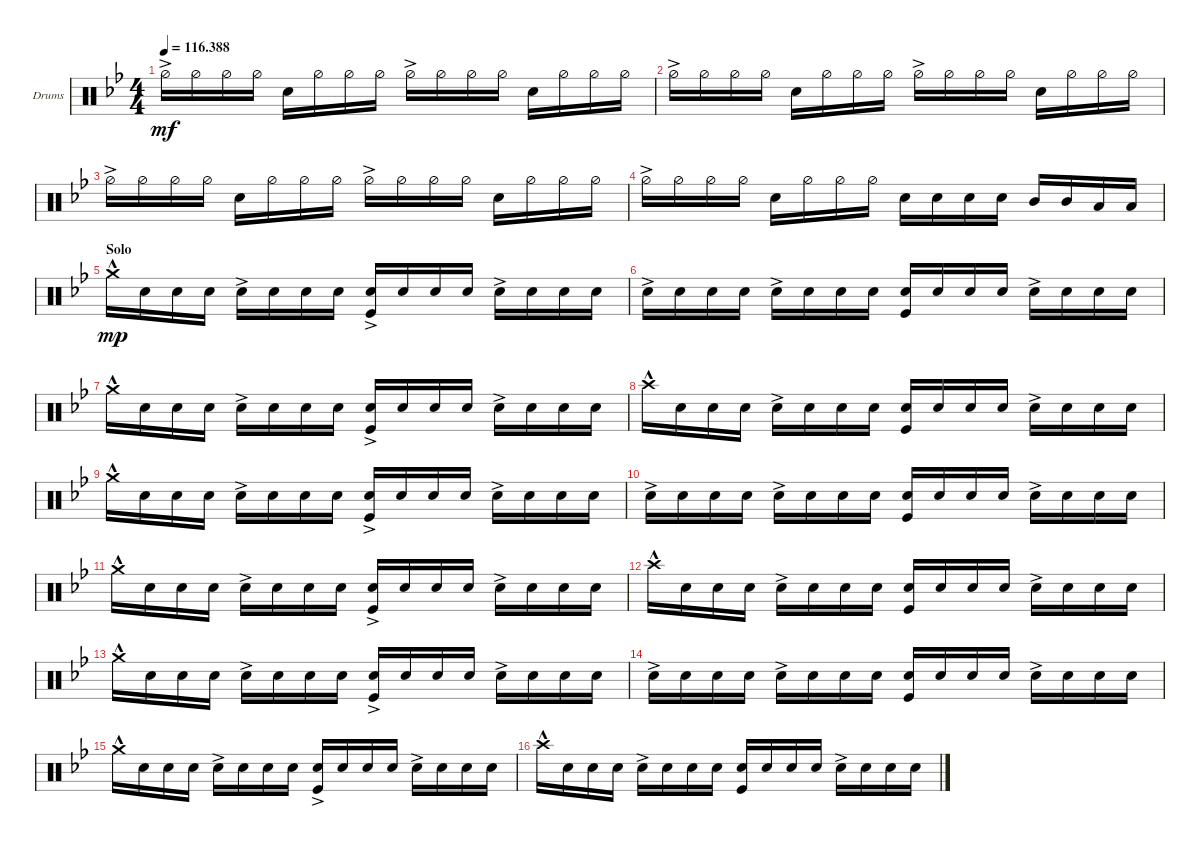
\bracketExtendMode groupsimilarinstruments
\firstSystemTrackNameOrientation horizontal
\otherSystemsTrackNameOrientation horizontal
\track ("Drumkit" "Drums") {instrument percussion}
\staff {score}
\articulation defaults
\ts (4 4)
\tempo
116.388
\accidentals auto
\clef neutral
\ottava regular
\simile none
\ks gminor "Hi-Hat (half)"{ac}.16{dy mf} "Hi-Hat (half)".16 "Hi-Hat (half)".16 "Hi-Hat (half)".16 "Snare (hit) 2".16 "Hi-Hat (half)".16 "Hi-Hat (half)".16 "Hi-Hat (half)".16 "Hi-Hat (half)"{ac}.16 "Hi-Hat (half)".16 "Hi-Hat (half)".16 "Hi-Hat (half)".16 "Snare (hit) 2".16 "Hi-Hat (half)".16 "Hi-Hat (half)".16 "Hi-Hat (half)".16
|
"Hi-Hat (half)"{ac}.16 "Hi-Hat (half)".16 "Hi-Hat (half)".16 "Hi-Hat (half)".16 "Snare (hit) 2".16 "Hi-Hat (half)".16 "Hi-Hat (half)".16 "Hi-Hat (half)".16 "Hi-Hat (half)"{ac}.16 "Hi-Hat (half)".16 "Hi-Hat (half)".16 "Hi-Hat (half)".16 "Snare (hit) 2".16 "Hi-Hat (half)".16 "Hi-Hat (half)".16 "Hi-Hat (half)".16 |
"Hi-Hat (half)"{ac}.16 "Hi-Hat (half)".16 "Hi-Hat (half)".16 "Hi-Hat (half)".16 "Snare (hit) 2".16 "Hi-Hat (half)".16 "Hi-Hat (half)".16 "Hi-Hat (half)".16 "Hi-Hat (half)"{ac}.16 "Hi-Hat (half)".16 "Hi-Hat (half)".16 "Hi-Hat (half)".16 "Snare (hit) 2".16 "Hi-Hat (half)".16 "Hi-Hat (half)".16 "Hi-Hat (half)".16 |
"Hi-Hat (half)"{ac}.16 "Hi-Hat (half)".16 "Hi-Hat (half)".16 "Hi-Hat (half)".16 "Snare (hit) 2".16 "Hi-Hat (half)".16 "Hi-Hat (half)".16 "Hi-Hat (half)".16 "Snare (hit) 2".16 "Snare (hit) 2".16 "Snare (hit) 2".16 "Snare (hit) 2".16 "Mid Tom (hit)".16 "Mid Tom (hit)".16 "Low Tom (hit)".16 "Low Tom (hit)".16 |
\section ("" "Solo")
"Crash medium (hit)"{hac}.16{dy mp} "Snare (hit) 2".16 "Snare (hit) 2".16 "Snare (hit) 2".16 "Snare (hit) 2"{ac}.16 "Snare (hit) 2".16 "Snare (hit) 2".16 "Snare (hit) 2".16 ("Kick (hit)" "Snare (hit) 2"{ac}).16 "Snare (hit) 2".16 "Snare (hit) 2".16 "Snare (hit) 2".16 "Snare (hit) 2"{ac}.16 "Snare (hit) 2".16 "Snare (hit) 2".16 "Snare (hit) 2".16 |
"Snare (hit) 2"{ac}.16 "Snare (hit) 2".16 "Snare (hit) 2".16 "Snare (hit) 2".16 "Snare (hit) 2"{ac}.16 "Snare (hit) 2".16 "Snare (hit) 2".16 "Snare (hit) 2".16 ("Kick (hit)" "Snare (hit) 2").16 "Snare (hit) 2".16 "Snare (hit) 2".16 "Snare (hit) 2".16 "Snare (hit) 2"{ac}.16 "Snare (hit) 2".16 "Snare (hit) 2".16 "Snare (hit) 2".16 |
"Crash medium (hit)"{hac}.16 "Snare (hit) 2".16 "Snare (hit) 2".16 "Snare (hit) 2".16 "Snare (hit) 2"{ac}.16 "Snare (hit) 2".16 "Snare (hit) 2".16 "Snare (hit) 2".16 ("Kick (hit)" "Snare (hit) 2"{ac}).16 "Snare (hit) 2".16 "Snare (hit) 2".16 "Snare (hit) 2".16 "Snare (hit) 2"{ac}.16 "Snare (hit) 2".16 "Snare (hit) 2".16 "Snare (hit) 2".16 |
"Crash high (hit)"{hac}.16 "Snare (hit) 2".16 "Snare (hit) 2".16 "Snare (hit) 2".16 "Snare (hit) 2"{ac}.16 "Snare (hit) 2".16 "Snare (hit) 2".16 "Snare (hit) 2".16 ("Kick (hit)" "Snare (hit) 2").16 "Snare (hit) 2".16 "Snare (hit) 2".16 "Snare (hit) 2".16 "Snare (hit) 2"{ac}.16 "Snare (hit) 2".16 "Snare (hit) 2".16 "Snare (hit) 2".16 |
"Crash medium (hit)"{hac}.16 "Snare (hit) 2".16 "Snare (hit) 2".16 "Snare (hit) 2".16 "Snare (hit) 2"{ac}.16 "Snare (hit) 2".16 "Snare (hit) 2".16 "Snare (hit) 2".16 ("Kick (hit)" "Snare (hit) 2"{ac}).16 "Snare (hit) 2".16 "Snare (hit) 2".16 "Snare (hit) 2".16 "Snare (hit) 2"{ac}.16 "Snare (hit) 2".16 "Snare (hit) 2".16 "Snare (hit) 2".16 |
"Snare (hit) 2"{ac}.16 "Snare (hit) 2".16 "Snare (hit) 2".16 "Snare (hit) 2".16 "Snare (hit) 2"{ac}.16 "Snare (hit) 2".16 "Snare (hit) 2".16 "Snare (hit) 2".16 ("Kick (hit)" "Snare (hit) 2").16 "Snare (hit) 2".16 "Snare (hit) 2".16 "Snare (hit) 2".16 "Snare (hit) 2"{ac}.16 "Snare (hit) 2".16 "Snare (hit) 2".16 "Snare (hit) 2".16 |
"Crash medium (hit)"{hac}.16 "Snare (hit) 2".16 "Snare (hit) 2".16 "Snare (hit) 2".16 "Snare (hit) 2"{ac}.16 "Snare (hit) 2".16 "Snare (hit) 2".16 "Snare (hit) 2".16 ("Kick (hit)" "Snare (hit) 2"{ac}).16 "Snare (hit) 2".16 "Snare (hit) 2".16 "Snare (hit) 2".16 "Snare (hit) 2"{ac}.16 "Snare (hit) 2".16 "Snare (hit) 2".16 "Snare (hit) 2".16 |
"Crash high (hit)"{hac}.16 "Snare (hit) 2".16 "Snare (hit) 2".16 "Snare (hit) 2".16 "Snare (hit) 2"{ac}.16 "Snare (hit) 2".16 "Snare (hit) 2".16 "Snare (hit) 2".16 ("Kick (hit)" "Snare (hit) 2").16 "Snare (hit) 2".16 "Snare (hit) 2".16 "Snare (hit) 2".16 "Snare (hit) 2"{ac}.16 "Snare (hit) 2".16 "Snare (hit) 2".16 "Snare (hit) 2".16 |
"Crash medium (hit)"{hac}.16 "Snare (hit) 2".16 "Snare (hit) 2".16 "Snare (hit) 2".16 "Snare (hit) 2"{ac}.16 "Snare (hit) 2".16 "Snare (hit) 2".16 "Snare (hit) 2".16 ("Kick (hit)" "Snare (hit) 2"{ac}).16 "Snare (hit) 2".16 "Snare (hit) 2".16 "Snare (hit) 2".16 "Snare (hit) 2"{ac}.16 "Snare (hit) 2".16 "Snare (hit) 2".16 "Snare (hit) 2".16 |
"Snare (hit) 2"{ac}.16 "Snare (hit) 2".16 "Snare (hit) 2".16 "Snare (hit) 2".16 "Snare (hit) 2"{ac}.16 "Snare (hit) 2".16 "Snare (hit) 2".16 "Snare (hit) 2".16 ("Kick (hit)" "Snare (hit) 2").16 "Snare (hit) 2".16 "Snare (hit) 2".16 "Snare (hit) 2".16 "Snare (hit) 2"{ac}.16 "Snare (hit) 2".16 "Snare (hit) 2".16 "Snare (hit) 2".16 |
"Crash medium (hit)"{hac}.16 "Snare (hit) 2".16 "Snare (hit) 2".16 "Snare (hit) 2".16 "Snare (hit) 2"{ac}.16 "Snare (hit) 2".16 "Snare (hit) 2".16 "Snare (hit) 2".16 ("Kick (hit)" "Snare (hit) 2"{ac}).16 "Snare (hit) 2".16 "Snare (hit) 2".16 "Snare (hit) 2".16 "Snare (hit) 2"{ac}.16 "Snare (hit) 2".16 "Snare (hit) 2".16 "Snare (hit) 2".16 |
"Crash high (hit)"{hac}.16 "Snare (hit) 2".16 "Snare (hit) 2".16 "Snare (hit) 2".16 "Snare (hit) 2"{ac}.16 "Snare (hit) 2".16 "Snare (hit) 2".16 "Snare (hit) 2".16 ("Kick (hit)" "Snare (hit) 2").16 "Snare (hit) 2".16 "Snare (hit) 2".16 "Snare (hit) 2".16 "Snare (hit) 2"{ac}.16 "Snare (hit) 2".16 "Snare (hit) 2".16 "Snare (hit) 2".16
